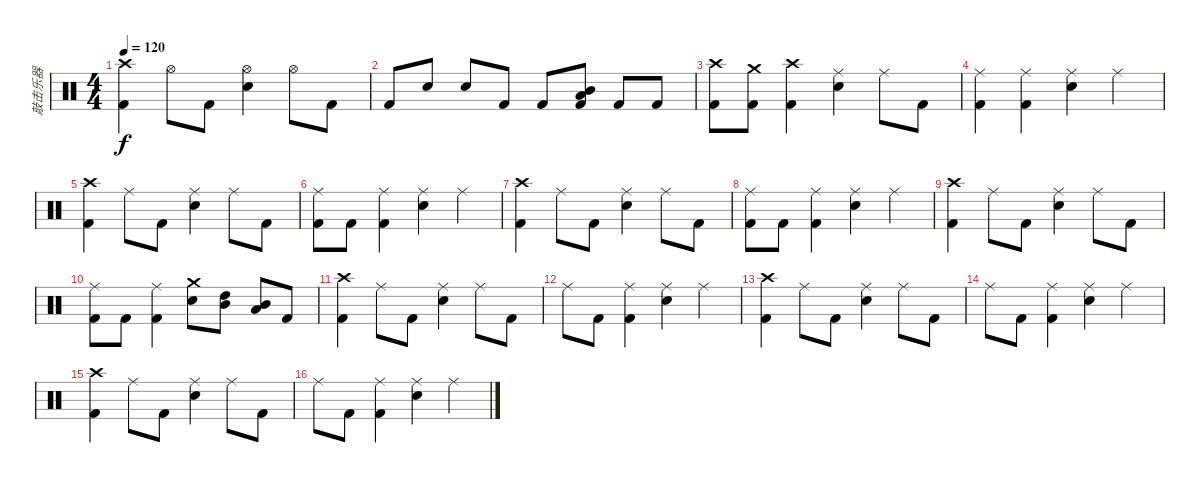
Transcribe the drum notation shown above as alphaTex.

\track ("敲击乐器" "敲击乐器") {instrument percussion}
\staff {score}
\articulation defaults
\ts (4 4)
\tempo 120
\clef neutral
\ks c
("Crash high (hit)" "Kick (hit) 2").4{dy f} "Hi-Hat (open)".8 "Kick (hit) 2".8 ("Hi-Hat (open)" "Snare (hit) 2").4 "Hi-Hat (open)".8 "Kick (hit) 2".8 |
"Kick (hit) 2".8 "Snare (hit) 2".8 "Snare (hit) 2".8 "Kick (hit) 2".8 "Kick (hit) 2".8 ("Low Tom (hit)" "Mid Tom (hit)" "Kick (hit) 2").8 "Kick (hit) 2".8 "Kick (hit) 2".8 |
("Crash high (hit)" "Kick (hit) 2").8 ("Crash medium (hit)" "Kick (hit) 2").8 ("Crash high (hit)" "Kick (hit) 2").4 ("Ride (middle)" "Snare (hit) 2").4 "Ride (middle)".8 "Kick (hit) 2".8 |
("Ride (middle)" "Kick (hit) 2").4 ("Ride (middle)" "Kick (hit) 2").4 ("Ride (middle)" "Snare (hit) 2").4 "Ride (middle)".4 |
("Crash high (hit)" "Kick (hit) 2").4 "Ride (middle)".8 "Kick (hit) 2".8 ("Ride (middle)" "Snare (hit) 2").4 "Ride (middle)".8 "Kick (hit) 2".8 |
("Ride (middle)" "Kick (hit) 2").8 "Kick (hit) 2".8 ("Ride (middle)" "Kick (hit) 2").4 ("Ride (middle)" "Snare (hit) 2").4 "Ride (middle)".4 |
("Crash high (hit)" "Kick (hit) 2").4 "Ride (middle)".8 "Kick (hit) 2".8 ("Ride (middle)" "Snare (hit) 2").4 "Ride (middle)".8 "Kick (hit) 2".8 |
("Ride (middle)" "Kick (hit) 2").8 "Kick (hit) 2".8 ("Ride (middle)" "Kick (hit) 2").4 ("Ride (middle)" "Snare (hit) 2").4 "Ride (middle)".4 |
("Crash high (hit)" "Kick (hit) 2").4 "Ride (middle)".8 "Kick (hit) 2".8 ("Ride (middle)" "Snare (hit) 2").4 "Ride (middle)".8 "Kick (hit) 2".8 |
("Ride (middle)" "Kick (hit) 2").8 "Kick (hit) 2".8 ("Ride (middle)" "Kick (hit) 2").4 ("Crash medium (hit)" "Snare (hit) 2").8 ("Mid Tom (hit)" "High Tom (hit)").8 ("Low Tom (hit)" "Mid Tom (hit)").8 "Kick (hit) 2".8 |
("Crash high (hit)" "Kick (hit) 2").4 "Ride (middle)".8 "Kick (hit) 2".8 ("Ride (middle)" "Snare (hit) 2").4 "Ride (middle)".8 "Kick (hit) 2".8 |
"Ride (middle)".8 "Kick (hit) 2".8 ("Ride (middle)" "Kick (hit) 2").4 ("Snare (hit) 2" "Ride (middle)").4 "Ride (middle)".4 |
("Crash high (hit)" "Kick (hit) 2").4 "Ride (middle)".8 "Kick (hit) 2".8 ("Ride (middle)" "Snare (hit) 2").4 "Ride (middle)".8 "Kick (hit) 2".8 |
"Ride (middle)".8 "Kick (hit) 2".8 ("Ride (middle)" "Kick (hit) 2").4 ("Snare (hit) 2" "Ride (middle)").4 "Ride (middle)".4 |
("Crash high (hit)" "Kick (hit) 2").4 "Ride (middle)".8 "Kick (hit) 2".8 ("Ride (middle)" "Snare (hit) 2").4 "Ride (middle)".8 "Kick (hit) 2".8 |
"Ride (middle)".8 "Kick (hit) 2".8 ("Ride (middle)" "Kick (hit) 2").4 ("Snare (hit) 2" "Ride (middle)").4 "Ride (middle)".4
